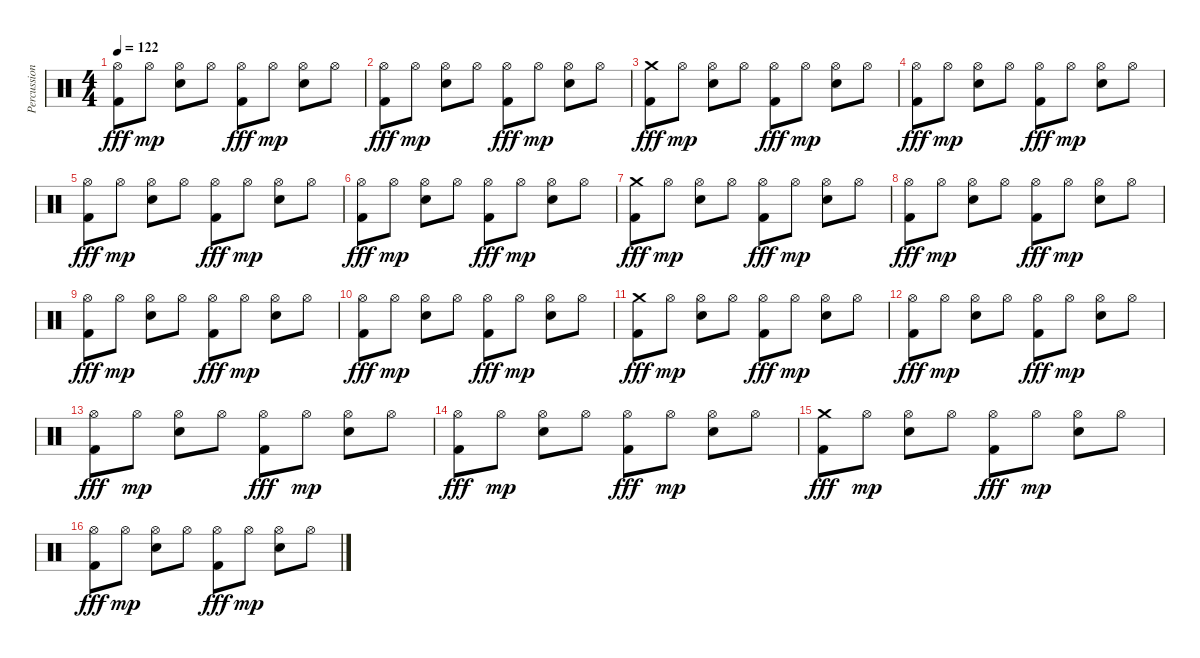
\track ("Percussion" "Percussion") {instrument percussion}
\staff {score}
\articulation defaults
\ts (4 4)
\tempo 122
\clef neutral
\ks c
("Hi-Hat (open)" "Kick (hit) 2").8{dy fff} "Hi-Hat (open)".8{dy mp} ("Hi-Hat (open)" "Electric Snare (hit)").8 "Hi-Hat (open)".8 ("Hi-Hat (open)" "Kick (hit) 2").8{dy fff} "Hi-Hat (open)".8{dy mp} ("Hi-Hat (open)" "Electric Snare (hit)").8 "Hi-Hat (open)".8 |
("Hi-Hat (open)" "Kick (hit) 2").8{dy fff} "Hi-Hat (open)".8{dy mp} ("Hi-Hat (open)" "Electric Snare (hit)").8 "Hi-Hat (open)".8 ("Hi-Hat (open)" "Kick (hit) 2").8{dy fff} "Hi-Hat (open)".8{dy mp} ("Hi-Hat (open)" "Electric Snare (hit)").8 "Hi-Hat (open)".8 |
("Crash medium (hit)" "Kick (hit) 2").8{dy fff} "Hi-Hat (open)".8{dy mp} ("Hi-Hat (open)" "Electric Snare (hit)").8 "Hi-Hat (open)".8 ("Hi-Hat (open)" "Kick (hit) 2").8{dy fff} "Hi-Hat (open)".8{dy mp} ("Hi-Hat (open)" "Electric Snare (hit)").8 "Hi-Hat (open)".8 |
("Hi-Hat (open)" "Kick (hit) 2").8{dy fff} "Hi-Hat (open)".8{dy mp} ("Hi-Hat (open)" "Electric Snare (hit)").8 "Hi-Hat (open)".8 ("Hi-Hat (open)" "Kick (hit) 2").8{dy fff} "Hi-Hat (open)".8{dy mp} ("Hi-Hat (open)" "Electric Snare (hit)").8 "Hi-Hat (open)".8 |
("Hi-Hat (open)" "Kick (hit) 2").8{dy fff} "Hi-Hat (open)".8{dy mp} ("Hi-Hat (open)" "Electric Snare (hit)").8 "Hi-Hat (open)".8 ("Hi-Hat (open)" "Kick (hit) 2").8{dy fff} "Hi-Hat (open)".8{dy mp} ("Hi-Hat (open)" "Electric Snare (hit)").8 "Hi-Hat (open)".8 |
("Hi-Hat (open)" "Kick (hit) 2").8{dy fff} "Hi-Hat (open)".8{dy mp} ("Hi-Hat (open)" "Electric Snare (hit)").8 "Hi-Hat (open)".8 ("Hi-Hat (open)" "Kick (hit) 2").8{dy fff} "Hi-Hat (open)".8{dy mp} ("Hi-Hat (open)" "Electric Snare (hit)").8 "Hi-Hat (open)".8 |
("Crash medium (hit)" "Kick (hit) 2").8{dy fff} "Hi-Hat (open)".8{dy mp} ("Hi-Hat (open)" "Electric Snare (hit)").8 "Hi-Hat (open)".8 ("Hi-Hat (open)" "Kick (hit) 2").8{dy fff} "Hi-Hat (open)".8{dy mp} ("Hi-Hat (open)" "Electric Snare (hit)").8 "Hi-Hat (open)".8 |
("Hi-Hat (open)" "Kick (hit) 2").8{dy fff} "Hi-Hat (open)".8{dy mp} ("Hi-Hat (open)" "Electric Snare (hit)").8 "Hi-Hat (open)".8 ("Hi-Hat (open)" "Kick (hit) 2").8{dy fff} "Hi-Hat (open)".8{dy mp} ("Hi-Hat (open)" "Electric Snare (hit)").8 "Hi-Hat (open)".8 |
("Hi-Hat (open)" "Kick (hit) 2").8{dy fff} "Hi-Hat (open)".8{dy mp} ("Hi-Hat (open)" "Electric Snare (hit)").8 "Hi-Hat (open)".8 ("Hi-Hat (open)" "Kick (hit) 2").8{dy fff} "Hi-Hat (open)".8{dy mp} ("Hi-Hat (open)" "Electric Snare (hit)").8 "Hi-Hat (open)".8 |
("Hi-Hat (open)" "Kick (hit) 2").8{dy fff} "Hi-Hat (open)".8{dy mp} ("Hi-Hat (open)" "Electric Snare (hit)").8 "Hi-Hat (open)".8 ("Hi-Hat (open)" "Kick (hit) 2").8{dy fff} "Hi-Hat (open)".8{dy mp} ("Hi-Hat (open)" "Electric Snare (hit)").8 "Hi-Hat (open)".8 |
("Crash medium (hit)" "Kick (hit) 2").8{dy fff} "Hi-Hat (open)".8{dy mp} ("Hi-Hat (open)" "Electric Snare (hit)").8 "Hi-Hat (open)".8 ("Hi-Hat (open)" "Kick (hit) 2").8{dy fff} "Hi-Hat (open)".8{dy mp} ("Hi-Hat (open)" "Electric Snare (hit)").8 "Hi-Hat (open)".8 |
("Hi-Hat (open)" "Kick (hit) 2").8{dy fff} "Hi-Hat (open)".8{dy mp} ("Hi-Hat (open)" "Electric Snare (hit)").8 "Hi-Hat (open)".8 ("Hi-Hat (open)" "Kick (hit) 2").8{dy fff} "Hi-Hat (open)".8{dy mp} ("Hi-Hat (open)" "Electric Snare (hit)").8 "Hi-Hat (open)".8 |
("Hi-Hat (open)" "Kick (hit) 2").8{dy fff} "Hi-Hat (open)".8{dy mp} ("Hi-Hat (open)" "Electric Snare (hit)").8 "Hi-Hat (open)".8 ("Hi-Hat (open)" "Kick (hit) 2").8{dy fff} "Hi-Hat (open)".8{dy mp} ("Hi-Hat (open)" "Electric Snare (hit)").8 "Hi-Hat (open)".8 |
("Hi-Hat (open)" "Kick (hit) 2").8{dy fff} "Hi-Hat (open)".8{dy mp} ("Hi-Hat (open)" "Electric Snare (hit)").8 "Hi-Hat (open)".8 ("Hi-Hat (open)" "Kick (hit) 2").8{dy fff} "Hi-Hat (open)".8{dy mp} ("Hi-Hat (open)" "Electric Snare (hit)").8 "Hi-Hat (open)".8 |
("Crash medium (hit)" "Kick (hit) 2").8{dy fff} "Hi-Hat (open)".8{dy mp} ("Hi-Hat (open)" "Electric Snare (hit)").8 "Hi-Hat (open)".8 ("Hi-Hat (open)" "Kick (hit) 2").8{dy fff} "Hi-Hat (open)".8{dy mp} ("Hi-Hat (open)" "Electric Snare (hit)").8 "Hi-Hat (open)".8 |
("Hi-Hat (open)" "Kick (hit) 2").8{dy fff} "Hi-Hat (open)".8{dy mp} ("Hi-Hat (open)" "Electric Snare (hit)").8 "Hi-Hat (open)".8 ("Hi-Hat (open)" "Kick (hit) 2").8{dy fff} "Hi-Hat (open)".8{dy mp} ("Hi-Hat (open)" "Electric Snare (hit)").8 "Hi-Hat (open)".8
